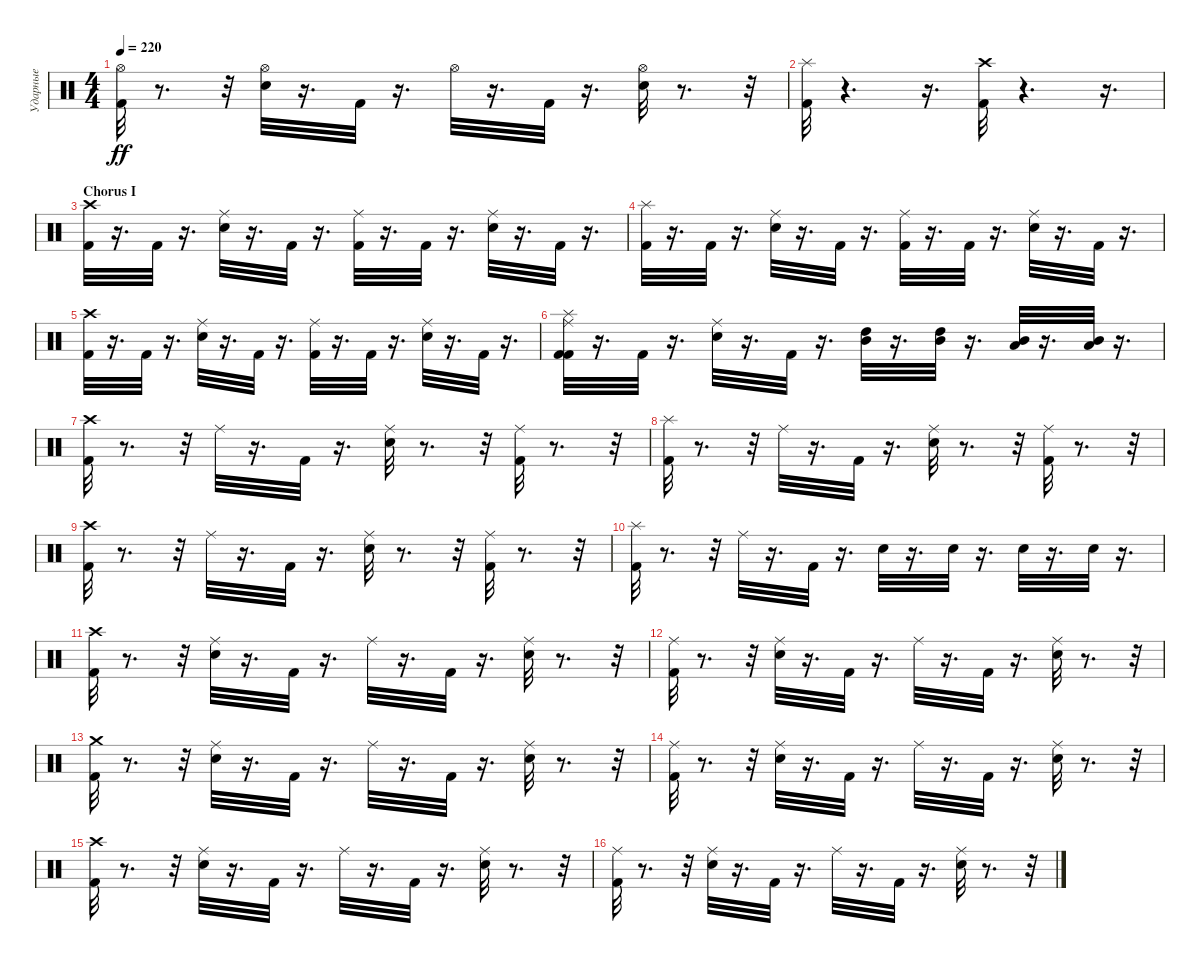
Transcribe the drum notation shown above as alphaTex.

\track ("Ударные" "Ударные") {instrument percussion}
\staff {score}
\articulation defaults
\ts (4 4)
\tempo 220
\clef neutral
\ks c
("Kick (hit) 2" "Hi-Hat (open)").32{dy ff} r.8{d} r.32 ("Snare (hit) 2" "Hi-Hat (open)").32 r.16{d} "Kick (hit) 2".32 r.16{d} "Hi-Hat (open)".32 r.16{d} "Kick (hit) 2".32 r.16{d} ("Hi-Hat (open)" "Snare (hit) 2").32 r.8{d} r.32 |
("Splash (hit)" "Kick (hit) 2").32 r.4{d} r.16{d} ("Crash high (hit)" "Kick (hit) 2").32 r.4{d} r.16{d} |
\section ("" "Chorus I")
("Crash high (hit)" "Kick (hit) 2").32 r.16{d} "Kick (hit) 2".32 r.16{d} ("Ride (middle)" "Snare (hit) 2").32 r.16{d} "Kick (hit) 2".32 r.16{d} ("Ride (middle)" "Kick (hit) 2").32 r.16{d} "Kick (hit) 2".32 r.16{d} ("Snare (hit) 2" "Ride (middle)").32 r.16{d} "Kick (hit) 2".32 r.16{d} |
("Kick (hit) 2" "Splash (hit)").32 r.16{d} "Kick (hit) 2".32 r.16{d} ("Snare (hit) 2" "Ride (middle)").32 r.16{d} "Kick (hit) 2".32 r.16{d} ("Kick (hit) 2" "Ride (middle)").32 r.16{d} "Kick (hit) 2".32 r.16{d} ("Snare (hit) 2" "Ride (middle)").32 r.16{d} "Kick (hit) 2".32 r.16{d} |
("Crash high (hit)" "Kick (hit) 2").32 r.16{d} "Kick (hit) 2".32 r.16{d} ("Ride (middle)" "Snare (hit) 2").32 r.16{d} "Kick (hit) 2".32 r.16{d} ("Ride (middle)" "Kick (hit) 2").32 r.16{d} "Kick (hit) 2".32 r.16{d} ("Snare (hit) 2" "Ride (middle)").32 r.16{d} "Kick (hit) 2".32 r.16{d} |
("Ride (middle)" "Kick (hit) 2" "Kick (hit) 2" "Splash (hit)").32 r.16{d} "Kick (hit) 2".32 r.16{d} ("Ride (middle)" "Snare (hit) 2").32 r.16{d} "Kick (hit) 2".32 r.16{d} ("Mid Tom (hit)" "High Tom (hit)").32 r.16{d} ("Mid Tom (hit)" "High Tom (hit)").32 r.16{d} ("Low Tom (hit)" "Mid Tom (hit)").32 r.16{d} ("Low Tom (hit)" "Mid Tom (hit)").32 r.16{d} |
("Kick (hit) 2" "Crash high (hit)").32 r.8{d} r.32 "Ride (middle)".32 r.16{d} "Kick (hit) 2".32 r.16{d} ("Snare (hit) 2" "Ride (middle)").32 r.8{d} r.32 ("Kick (hit) 2" "Ride (middle)").32 r.8{d} r.32 |
("Splash (hit)" "Kick (hit) 2").32 r.8{d} r.32 "Ride (middle)".32 r.16{d} "Kick (hit) 2".32 r.16{d} ("Ride (middle)" "Snare (hit) 2").32 r.8{d} r.32 ("Ride (middle)" "Kick (hit) 2").32 r.8{d} r.32 |
("Kick (hit) 2" "Crash high (hit)").32 r.8{d} r.32 "Ride (middle)".32 r.16{d} "Kick (hit) 2".32 r.16{d} ("Snare (hit) 2" "Ride (middle)").32 r.8{d} r.32 ("Kick (hit) 2" "Ride (middle)").32 r.8{d} r.32 |
("Splash (hit)" "Kick (hit) 2").32 r.8{d} r.32 "Ride (middle)".32 r.16{d} "Kick (hit) 2".32 r.16{d} "Snare (hit) 2".32 r.16{d} "Snare (hit) 2".32 r.16{d} "Snare (hit) 2".32 r.16{d} "Snare (hit) 2".32 r.16{d} |
("Crash high (hit)" "Kick (hit) 2").32 r.8{d} r.32 ("Ride (middle)" "Snare (hit) 2").32 r.16{d} "Kick (hit) 2".32 r.16{d} "Ride (middle)".32 r.16{d} "Kick (hit) 2".32 r.16{d} ("Ride (middle)" "Snare (hit) 2").32 r.8{d} r.32 |
("Kick (hit) 2" "Ride (middle)").32 r.8{d} r.32 ("Snare (hit) 2" "Ride (middle)").32 r.16{d} "Kick (hit) 2".32 r.16{d} "Ride (middle)".32 r.16{d} "Kick (hit) 2".32 r.16{d} ("Snare (hit) 2" "Ride (middle)").32 r.8{d} r.32 |
("Crash medium (hit)" "Kick (hit) 2").32 r.8{d} r.32 ("Ride (middle)" "Snare (hit) 2").32 r.16{d} "Kick (hit) 2".32 r.16{d} "Ride (middle)".32 r.16{d} "Kick (hit) 2".32 r.16{d} ("Ride (middle)" "Snare (hit) 2").32 r.8{d} r.32 |
("Kick (hit) 2" "Ride (middle)").32 r.8{d} r.32 ("Snare (hit) 2" "Ride (middle)").32 r.16{d} "Kick (hit) 2".32 r.16{d} "Ride (middle)".32 r.16{d} "Kick (hit) 2".32 r.16{d} ("Snare (hit) 2" "Ride (middle)").32 r.8{d} r.32 |
("Crash high (hit)" "Kick (hit) 2").32 r.8{d} r.32 ("Ride (middle)" "Snare (hit) 2").32 r.16{d} "Kick (hit) 2".32 r.16{d} "Ride (middle)".32 r.16{d} "Kick (hit) 2".32 r.16{d} ("Ride (middle)" "Snare (hit) 2").32 r.8{d} r.32 |
("Kick (hit) 2" "Ride (middle)").32 r.8{d} r.32 ("Snare (hit) 2" "Ride (middle)").32 r.16{d} "Kick (hit) 2".32 r.16{d} "Ride (middle)".32 r.16{d} "Kick (hit) 2".32 r.16{d} ("Snare (hit) 2" "Ride (middle)").32 r.8{d} r.32
